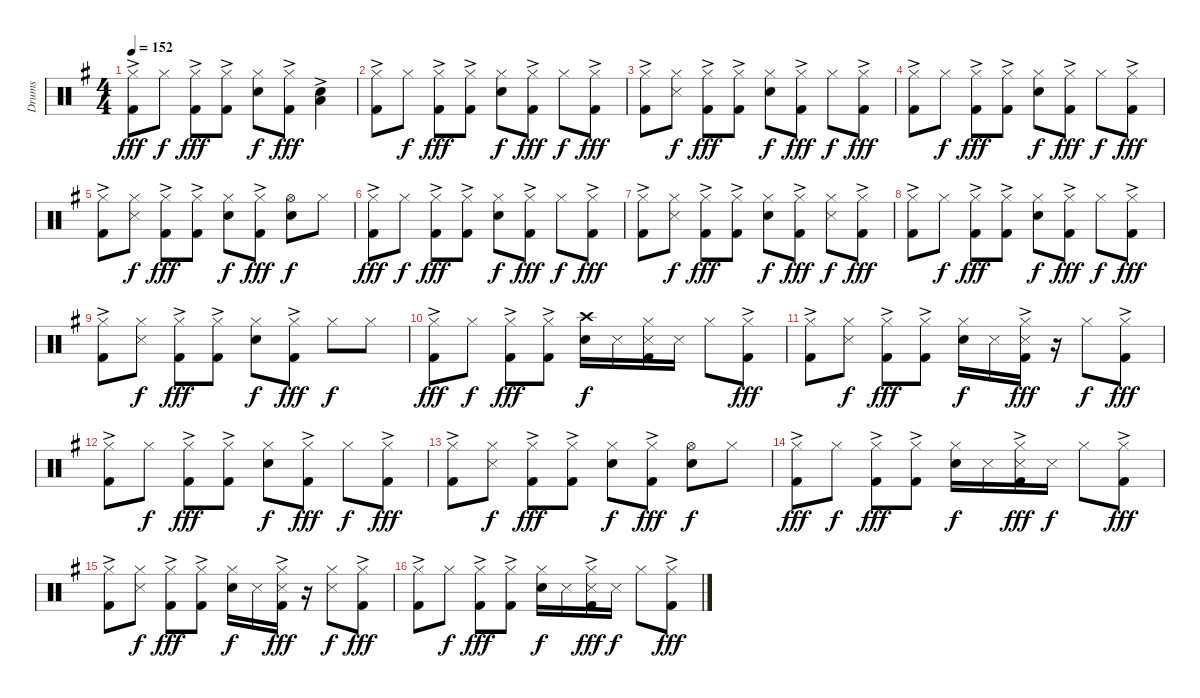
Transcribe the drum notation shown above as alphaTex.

\track ("Drums" "Drums") {instrument percussion}
\staff {score}
\articulation defaults
\ts (4 4)
\tempo 152
\clef neutral
\ks eminor
("Hi-Hat (closed)" "Kick (hit) 2"{ac}).8{dy fff} "Hi-Hat (closed)".8{dy f} ("Hi-Hat (closed)" "Kick (hit) 2"{ac}).8{dy fff} ("Hi-Hat (closed)" "Kick (hit) 2"{ac}).8 ("Hi-Hat (closed)" "Snare (hit) 2").8{dy f} ("Hi-Hat (closed)" "Kick (hit) 2"{ac}).8{dy fff} ("Snare (hit) 2" "Low Floor Tom (hit)"{ac}).4 |
("Hi-Hat (closed)" "Kick (hit) 2"{ac}).8 "Hi-Hat (closed)".8{dy f} ("Hi-Hat (closed)" "Kick (hit) 2"{ac}).8{dy fff} ("Hi-Hat (closed)" "Kick (hit) 2"{ac}).8 ("Hi-Hat (closed)" "Snare (hit) 2").8{dy f} ("Hi-Hat (closed)" "Kick (hit) 2"{ac}).8{dy fff} "Hi-Hat (closed)".8{dy f} ("Hi-Hat (closed)" "Kick (hit) 2"{ac}).8{dy fff} |
("Hi-Hat (closed)" "Kick (hit) 2"{ac}).8 ("Hi-Hat (closed)" "Snare (side stick) 3").8{dy f} ("Hi-Hat (closed)" "Kick (hit) 2"{ac}).8{dy fff} ("Hi-Hat (closed)" "Kick (hit) 2"{ac}).8 ("Hi-Hat (closed)" "Snare (hit) 2").8{dy f} ("Hi-Hat (closed)" "Kick (hit) 2"{ac}).8{dy fff} "Hi-Hat (closed)".8{dy f} ("Hi-Hat (closed)" "Kick (hit) 2"{ac}).8{dy fff} |
("Hi-Hat (closed)" "Kick (hit) 2"{ac}).8 "Hi-Hat (closed)".8{dy f} ("Hi-Hat (closed)" "Kick (hit) 2"{ac}).8{dy fff} ("Hi-Hat (closed)" "Kick (hit) 2"{ac}).8 ("Hi-Hat (closed)" "Snare (hit) 2").8{dy f} ("Hi-Hat (closed)" "Kick (hit) 2"{ac}).8{dy fff} "Hi-Hat (closed)".8{dy f} ("Hi-Hat (closed)" "Kick (hit) 2"{ac}).8{dy fff} |
("Hi-Hat (closed)" "Kick (hit) 2"{ac}).8 ("Hi-Hat (closed)" "Snare (side stick) 3").8{dy f} ("Hi-Hat (closed)" "Kick (hit) 2"{ac}).8{dy fff} ("Hi-Hat (closed)" "Kick (hit) 2"{ac}).8 ("Hi-Hat (closed)" "Snare (hit) 2").8{dy f} ("Hi-Hat (closed)" "Kick (hit) 2"{ac}).8{dy fff} ("Hi-Hat (open)" "Snare (hit) 2").8{dy f} "Hi-Hat (closed)".8 |
("Hi-Hat (closed)" "Kick (hit) 2"{ac}).8{dy fff} "Hi-Hat (closed)".8{dy f} ("Hi-Hat (closed)" "Kick (hit) 2"{ac}).8{dy fff} ("Hi-Hat (closed)" "Kick (hit) 2"{ac}).8 ("Hi-Hat (closed)" "Snare (hit) 2").8{dy f} ("Hi-Hat (closed)" "Kick (hit) 2"{ac}).8{dy fff} "Hi-Hat (closed)".8{dy f} ("Hi-Hat (closed)" "Kick (hit) 2"{ac}).8{dy fff} |
("Hi-Hat (closed)" "Kick (hit) 2"{ac}).8 ("Hi-Hat (closed)" "Snare (side stick) 3").8{dy f} ("Hi-Hat (closed)" "Kick (hit) 2"{ac}).8{dy fff} ("Hi-Hat (closed)" "Kick (hit) 2"{ac}).8 ("Hi-Hat (closed)" "Snare (hit) 2").8{dy f} ("Hi-Hat (closed)" "Kick (hit) 2"{ac}).8{dy fff} ("Hi-Hat (closed)" "Snare (side stick) 3").8{dy f} ("Hi-Hat (closed)" "Kick (hit) 2"{ac}).8{dy fff} |
("Hi-Hat (closed)" "Kick (hit) 2"{ac}).8 "Hi-Hat (closed)".8{dy f} ("Hi-Hat (closed)" "Kick (hit) 2"{ac}).8{dy fff} ("Hi-Hat (closed)" "Kick (hit) 2"{ac}).8 ("Hi-Hat (closed)" "Snare (hit) 2").8{dy f} ("Hi-Hat (closed)" "Kick (hit) 2"{ac}).8{dy fff} "Hi-Hat (closed)".8{dy f} ("Hi-Hat (closed)" "Kick (hit) 2"{ac}).8{dy fff} |
("Hi-Hat (closed)" "Kick (hit) 2"{ac}).8 ("Hi-Hat (closed)" "Snare (side stick) 3").8{dy f} ("Hi-Hat (closed)" "Kick (hit) 2"{ac}).8{dy fff} ("Hi-Hat (closed)" "Kick (hit) 2"{ac}).8 ("Hi-Hat (closed)" "Snare (hit) 2").8{dy f} ("Hi-Hat (closed)" "Kick (hit) 2"{ac}).8{dy fff} "Hi-Hat (closed)".8{dy f} "Hi-Hat (closed)".8 |
("Hi-Hat (closed)" "Kick (hit) 2"{ac}).8{dy fff} "Hi-Hat (closed)".8{dy f} ("Hi-Hat (closed)" "Kick (hit) 2"{ac}).8{dy fff} ("Hi-Hat (closed)" "Kick (hit) 2"{ac}).8 ("Crash high (hit)" "Snare (hit) 2").16{dy f} "Snare (side stick) 3".16 ("Hi-Hat (closed)" "Snare (side stick) 3" "Kick (hit) 2").16 "Snare (side stick) 3".16 "Hi-Hat (closed)".8 ("Hi-Hat (closed)" "Kick (hit) 2"{ac}).8{dy fff} |
("Hi-Hat (closed)" "Kick (hit) 2"{ac}).8 ("Hi-Hat (closed)" "Snare (side stick) 3").8{dy f} ("Hi-Hat (closed)" "Kick (hit) 2"{ac}).8{dy fff} ("Hi-Hat (closed)" "Kick (hit) 2"{ac}).8 ("Hi-Hat (closed)" "Snare (hit) 2").16{dy f} "Snare (side stick) 3".16 ("Hi-Hat (closed)" "Snare (side stick) 3" "Kick (hit) 2"{ac}).16{dy fff} r.16 "Hi-Hat (closed)".8{dy f} ("Hi-Hat (closed)" "Kick (hit) 2"{ac}).8{dy fff} |
("Hi-Hat (closed)" "Kick (hit) 2"{ac}).8 "Hi-Hat (closed)".8{dy f} ("Hi-Hat (closed)" "Kick (hit) 2"{ac}).8{dy fff} ("Hi-Hat (closed)" "Kick (hit) 2"{ac}).8 ("Hi-Hat (closed)" "Snare (hit) 2").8{dy f} ("Hi-Hat (closed)" "Kick (hit) 2"{ac}).8{dy fff} "Hi-Hat (closed)".8{dy f} ("Hi-Hat (closed)" "Kick (hit) 2"{ac}).8{dy fff} |
("Hi-Hat (closed)" "Kick (hit) 2"{ac}).8 ("Hi-Hat (closed)" "Snare (side stick) 3").8{dy f} ("Hi-Hat (closed)" "Kick (hit) 2"{ac}).8{dy fff} ("Hi-Hat (closed)" "Kick (hit) 2"{ac}).8 ("Hi-Hat (closed)" "Snare (hit) 2").8{dy f} ("Hi-Hat (closed)" "Kick (hit) 2"{ac}).8{dy fff} ("Hi-Hat (open)" "Snare (hit) 2").8{dy f} "Hi-Hat (closed)".8 |
("Hi-Hat (closed)" "Kick (hit) 2"{ac}).8{dy fff} "Hi-Hat (closed)".8{dy f} ("Hi-Hat (closed)" "Kick (hit) 2"{ac}).8{dy fff} ("Hi-Hat (closed)" "Kick (hit) 2"{ac}).8 ("Hi-Hat (closed)" "Snare (hit) 2").16{dy f} "Snare (side stick) 3".16 ("Hi-Hat (closed)" "Snare (side stick) 3" "Kick (hit) 2"{ac}).16{dy fff} "Snare (side stick) 3".16{dy f} "Hi-Hat (closed)".8 ("Hi-Hat (closed)" "Kick (hit) 2"{ac}).8{dy fff} |
("Hi-Hat (closed)" "Kick (hit) 2"{ac}).8 ("Hi-Hat (closed)" "Snare (side stick) 3").8{dy f} ("Hi-Hat (closed)" "Kick (hit) 2"{ac}).8{dy fff} ("Hi-Hat (closed)" "Kick (hit) 2"{ac}).8 ("Hi-Hat (closed)" "Snare (hit) 2").16{dy f} "Snare (side stick) 3".16 ("Hi-Hat (closed)" "Snare (side stick) 3" "Kick (hit) 2"{ac}).16{dy fff} r.16 ("Hi-Hat (closed)" "Snare (side stick) 3").8{dy f} ("Hi-Hat (closed)" "Kick (hit) 2"{ac}).8{dy fff} |
("Hi-Hat (closed)" "Kick (hit) 2"{ac}).8 "Hi-Hat (closed)".8{dy f} ("Hi-Hat (closed)" "Kick (hit) 2"{ac}).8{dy fff} ("Hi-Hat (closed)" "Kick (hit) 2"{ac}).8 ("Hi-Hat (closed)" "Snare (hit) 2").16{dy f} "Snare (side stick) 3".16 ("Hi-Hat (closed)" "Snare (side stick) 3" "Kick (hit) 2"{ac}).16{dy fff} "Snare (side stick) 3".16{dy f} "Hi-Hat (closed)".8 ("Hi-Hat (closed)" "Kick (hit) 2"{ac}).8{dy fff}
